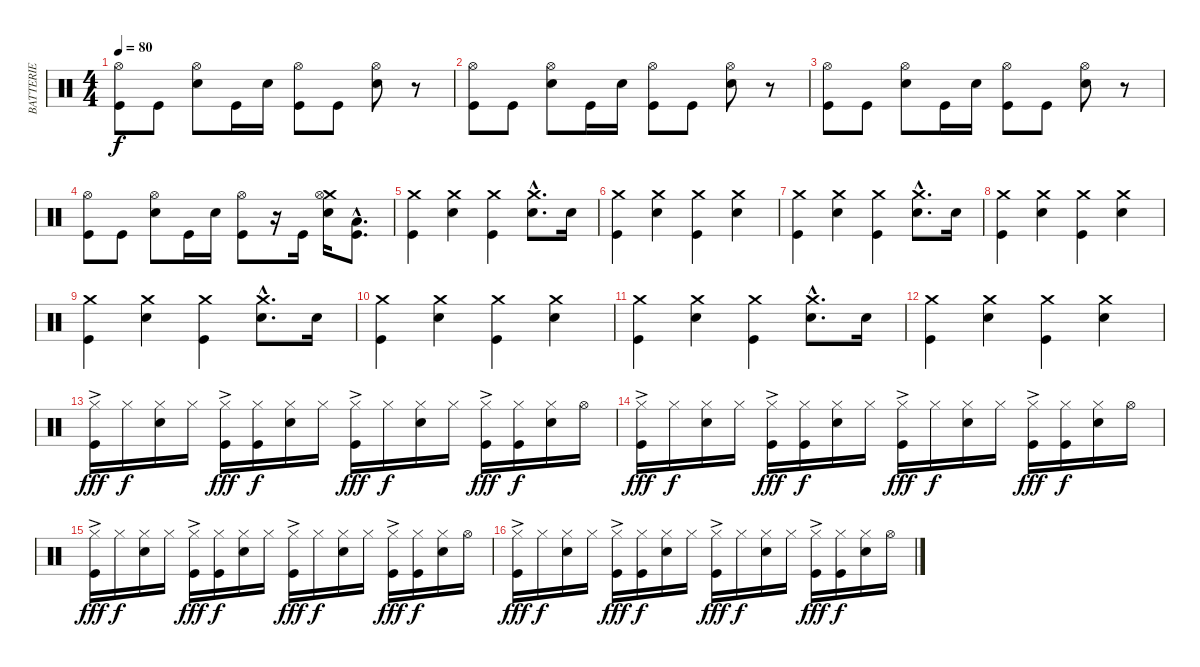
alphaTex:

\track ("BATTERIE" "BATTERIE") {instrument percussion}
\staff {score}
\articulation defaults
\ts (4 4)
\tempo 80
\clef neutral
\ks c
("Hi-Hat (open)" "Kick (hit)").8{dy f} "Kick (hit)".8 ("Hi-Hat (open)" "Electric Snare (hit)").8 "Kick (hit)".16 "Electric Snare (hit)".16 ("Hi-Hat (open)" "Kick (hit)").8 "Kick (hit)".8 ("Hi-Hat (open)" "Electric Snare (hit)").8 r.8 |
("Hi-Hat (open)" "Kick (hit)").8 "Kick (hit)".8 ("Hi-Hat (open)" "Electric Snare (hit)").8 "Kick (hit)".16 "Electric Snare (hit)".16 ("Hi-Hat (open)" "Kick (hit)").8 "Kick (hit)".8 ("Hi-Hat (open)" "Electric Snare (hit)").8 r.8 |
("Hi-Hat (open)" "Kick (hit)").8 "Kick (hit)".8 ("Hi-Hat (open)" "Electric Snare (hit)").8 "Kick (hit)".16 "Electric Snare (hit)".16 ("Hi-Hat (open)" "Kick (hit)").8 "Kick (hit)".8 ("Hi-Hat (open)" "Electric Snare (hit)").8 r.8 |
("Hi-Hat (open)" "Kick (hit)").8 "Kick (hit)".8 ("Hi-Hat (open)" "Electric Snare (hit)").8 "Kick (hit)".16 "Electric Snare (hit)".16 ("Hi-Hat (open)" "Kick (hit)").8 r.16 "Kick (hit)".16 ("Crash medium (hit)" "Hi-Hat (open)" "Electric Snare (hit)").16 ("Kick (hit)"{hac} "Low Floor Tom (hit)"{hac}).8{d} |
("Crash medium (hit)" "Kick (hit)").4 ("Crash medium (hit)" "Electric Snare (hit)").4 ("Crash medium (hit)" "Kick (hit)").4 ("Crash medium (hit)"{hac} "Electric Snare (hit)"{hac}).8{d} "Electric Snare (hit)".16 |
("Crash medium (hit)" "Kick (hit)").4 ("Crash medium (hit)" "Electric Snare (hit)").4 ("Crash medium (hit)" "Kick (hit)").4 ("Crash medium (hit)" "Electric Snare (hit)").4 |
("Crash medium (hit)" "Kick (hit)").4 ("Crash medium (hit)" "Electric Snare (hit)").4 ("Crash medium (hit)" "Kick (hit)").4 ("Crash medium (hit)"{hac} "Electric Snare (hit)"{hac}).8{d} "Electric Snare (hit)".16 |
("Crash medium (hit)" "Kick (hit)").4 ("Crash medium (hit)" "Electric Snare (hit)").4 ("Crash medium (hit)" "Kick (hit)").4 ("Crash medium (hit)" "Electric Snare (hit)").4 |
("Crash medium (hit)" "Kick (hit)").4 ("Crash medium (hit)" "Electric Snare (hit)").4 ("Crash medium (hit)" "Kick (hit)").4 ("Crash medium (hit)"{hac} "Electric Snare (hit)"{hac}).8{d} "Electric Snare (hit)".16 |
("Crash medium (hit)" "Kick (hit)").4 ("Crash medium (hit)" "Electric Snare (hit)").4 ("Crash medium (hit)" "Kick (hit)").4 ("Crash medium (hit)" "Electric Snare (hit)").4 |
("Crash medium (hit)" "Kick (hit)").4 ("Crash medium (hit)" "Electric Snare (hit)").4 ("Crash medium (hit)" "Kick (hit)").4 ("Crash medium (hit)"{hac} "Electric Snare (hit)"{hac}).8{d} "Electric Snare (hit)".16 |
("Crash medium (hit)" "Kick (hit)").4 ("Crash medium (hit)" "Electric Snare (hit)").4 ("Crash medium (hit)" "Kick (hit)").4 ("Crash medium (hit)" "Electric Snare (hit)").4 |
("Hi-Hat (closed)" "Kick (hit)"{ac}).16{dy fff} "Hi-Hat (closed)".16{dy f} ("Hi-Hat (closed)" "Electric Snare (hit)").16 "Hi-Hat (closed)".16 ("Hi-Hat (closed)"{ac} "Kick (hit)").16{dy fff} ("Hi-Hat (closed)" "Kick (hit)").16{dy f} ("Hi-Hat (closed)" "Electric Snare (hit)").16 "Hi-Hat (closed)".16 ("Hi-Hat (closed)"{ac} "Kick (hit)").16{dy fff} "Hi-Hat (closed)".16{dy f} ("Hi-Hat (closed)" "Electric Snare (hit)").16 "Hi-Hat (closed)".16 ("Hi-Hat (closed)"{ac} "Kick (hit)").16{dy fff} ("Hi-Hat (closed)" "Kick (hit)").16{dy f} ("Hi-Hat (closed)" "Electric Snare (hit)").16 "Hi-Hat (open)".16 |
("Hi-Hat (closed)" "Kick (hit)"{ac}).16{dy fff} "Hi-Hat (closed)".16{dy f} ("Hi-Hat (closed)" "Electric Snare (hit)").16 "Hi-Hat (closed)".16 ("Hi-Hat (closed)"{ac} "Kick (hit)").16{dy fff} ("Hi-Hat (closed)" "Kick (hit)").16{dy f} ("Hi-Hat (closed)" "Electric Snare (hit)").16 "Hi-Hat (closed)".16 ("Hi-Hat (closed)"{ac} "Kick (hit)").16{dy fff} "Hi-Hat (closed)".16{dy f} ("Hi-Hat (closed)" "Electric Snare (hit)").16 "Hi-Hat (closed)".16 ("Hi-Hat (closed)"{ac} "Kick (hit)").16{dy fff} ("Hi-Hat (closed)" "Kick (hit)").16{dy f} ("Hi-Hat (closed)" "Electric Snare (hit)").16 "Hi-Hat (open)".16 |
("Hi-Hat (closed)" "Kick (hit)"{ac}).16{dy fff} "Hi-Hat (closed)".16{dy f} ("Hi-Hat (closed)" "Electric Snare (hit)").16 "Hi-Hat (closed)".16 ("Hi-Hat (closed)"{ac} "Kick (hit)").16{dy fff} ("Hi-Hat (closed)" "Kick (hit)").16{dy f} ("Hi-Hat (closed)" "Electric Snare (hit)").16 "Hi-Hat (closed)".16 ("Hi-Hat (closed)"{ac} "Kick (hit)").16{dy fff} "Hi-Hat (closed)".16{dy f} ("Hi-Hat (closed)" "Electric Snare (hit)").16 "Hi-Hat (closed)".16 ("Hi-Hat (closed)"{ac} "Kick (hit)").16{dy fff} ("Hi-Hat (closed)" "Kick (hit)").16{dy f} ("Hi-Hat (closed)" "Electric Snare (hit)").16 "Hi-Hat (open)".16 |
("Hi-Hat (closed)" "Kick (hit)"{ac}).16{dy fff} "Hi-Hat (closed)".16{dy f} ("Hi-Hat (closed)" "Electric Snare (hit)").16 "Hi-Hat (closed)".16 ("Hi-Hat (closed)"{ac} "Kick (hit)").16{dy fff} ("Hi-Hat (closed)" "Kick (hit)").16{dy f} ("Hi-Hat (closed)" "Electric Snare (hit)").16 "Hi-Hat (closed)".16 ("Hi-Hat (closed)"{ac} "Kick (hit)").16{dy fff} "Hi-Hat (closed)".16{dy f} ("Hi-Hat (closed)" "Electric Snare (hit)").16 "Hi-Hat (closed)".16 ("Hi-Hat (closed)"{ac} "Kick (hit)").16{dy fff} ("Hi-Hat (closed)" "Kick (hit)").16{dy f} ("Hi-Hat (closed)" "Electric Snare (hit)").16 "Hi-Hat (open)".16
